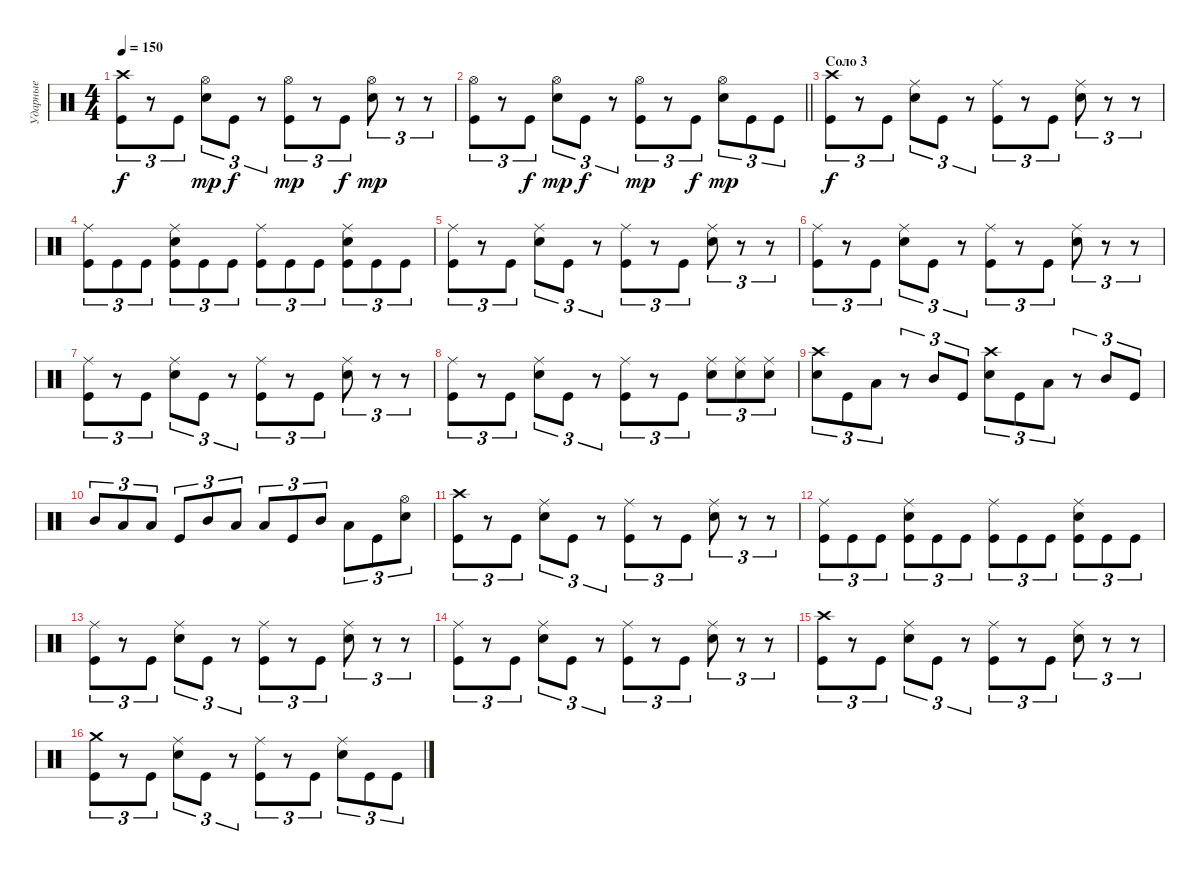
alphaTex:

\track ("Ударные" "Ударные") {instrument percussion}
\staff {score}
\articulation defaults
\ts (4 4)
\tempo 150
\clef neutral
\ks c
("Crash high (hit)" "Kick (hit)").8{tu (3 2) dy f} r.8{tu (3 2)} "Kick (hit)".8{tu (3 2)} ("Hi-Hat (open)" "Snare (hit) 2").8{tu (3 2) dy mp} "Kick (hit)".8{tu (3 2) dy f} r.8{tu (3 2)} ("Hi-Hat (open)" "Kick (hit)").8{tu (3 2) dy mp} r.8{tu (3 2)} "Kick (hit)".8{tu (3 2) dy f} ("Hi-Hat (open)" "Snare (hit) 2").8{tu (3 2) dy mp} r.8{tu (3 2)} r.8{tu (3 2)} |
\barLineRight lightlight
("Hi-Hat (open)" "Kick (hit)").8{tu (3 2)} r.8{tu (3 2)} "Kick (hit)".8{tu (3 2) dy f} ("Hi-Hat (open)" "Snare (hit) 2").8{tu (3 2) dy mp} "Kick (hit)".8{tu (3 2) dy f} r.8{tu (3 2)} ("Hi-Hat (open)" "Kick (hit)").8{tu (3 2) dy mp} r.8{tu (3 2)} "Kick (hit)".8{tu (3 2) dy f} ("Hi-Hat (open)" "Snare (hit) 2").8{tu (3 2) dy mp} "Kick (hit)".8{tu (3 2)} "Kick (hit)".8{tu (3 2)} |
\section ("" "Соло 3")
("Crash high (hit)" "Kick (hit)").8{tu (3 2) dy f} r.8{tu (3 2)} "Kick (hit)".8{tu (3 2)} ("Ride (middle)" "Snare (hit) 2").8{tu (3 2)} "Kick (hit)".8{tu (3 2)} r.8{tu (3 2)} ("Ride (middle)" "Kick (hit)").8{tu (3 2)} r.8{tu (3 2)} "Kick (hit)".8{tu (3 2)} ("Ride (middle)" "Snare (hit) 2").8{tu (3 2)} r.8{tu (3 2)} r.8{tu (3 2)} |
("Ride (middle)" "Kick (hit)").8{tu (3 2)} "Kick (hit)".8{tu (3 2)} "Kick (hit)".8{tu (3 2)} ("Ride (middle)" "Snare (hit) 2" "Kick (hit)").8{tu (3 2)} "Kick (hit)".8{tu (3 2)} "Kick (hit)".8{tu (3 2)} ("Ride (middle)" "Kick (hit)").8{tu (3 2)} "Kick (hit)".8{tu (3 2)} "Kick (hit)".8{tu (3 2)} ("Ride (middle)" "Snare (hit) 2" "Kick (hit)").8{tu (3 2)} "Kick (hit)".8{tu (3 2)} "Kick (hit)".8{tu (3 2)} |
("Ride (middle)" "Kick (hit)").8{tu (3 2)} r.8{tu (3 2)} "Kick (hit)".8{tu (3 2)} ("Ride (middle)" "Snare (hit) 2").8{tu (3 2)} "Kick (hit)".8{tu (3 2)} r.8{tu (3 2)} ("Ride (middle)" "Kick (hit)").8{tu (3 2)} r.8{tu (3 2)} "Kick (hit)".8{tu (3 2)} ("Ride (middle)" "Snare (hit) 2").8{tu (3 2)} r.8{tu (3 2)} r.8{tu (3 2)} |
("Ride (middle)" "Kick (hit)").8{tu (3 2)} r.8{tu (3 2)} "Kick (hit)".8{tu (3 2)} ("Ride (middle)" "Snare (hit) 2").8{tu (3 2)} "Kick (hit)".8{tu (3 2)} r.8{tu (3 2)} ("Ride (middle)" "Kick (hit)").8{tu (3 2)} r.8{tu (3 2)} "Kick (hit)".8{tu (3 2)} ("Ride (middle)" "Snare (hit) 2").8{tu (3 2)} r.8{tu (3 2)} r.8{tu (3 2)} |
("Ride (middle)" "Kick (hit)").8{tu (3 2)} r.8{tu (3 2)} "Kick (hit)".8{tu (3 2)} ("Ride (middle)" "Snare (hit) 2").8{tu (3 2)} "Kick (hit)".8{tu (3 2)} r.8{tu (3 2)} ("Ride (middle)" "Kick (hit)").8{tu (3 2)} r.8{tu (3 2)} "Kick (hit)".8{tu (3 2)} ("Ride (middle)" "Snare (hit) 2").8{tu (3 2)} r.8{tu (3 2)} r.8{tu (3 2)} |
("Ride (middle)" "Kick (hit)").8{tu (3 2)} r.8{tu (3 2)} "Kick (hit)".8{tu (3 2)} ("Ride (middle)" "Snare (hit) 2").8{tu (3 2)} "Kick (hit)".8{tu (3 2)} r.8{tu (3 2)} ("Ride (middle)" "Kick (hit)").8{tu (3 2)} r.8{tu (3 2)} "Kick (hit)".8{tu (3 2)} ("Ride (middle)" "Snare (hit) 2").8{tu (3 2)} ("Ride (middle)" "Snare (hit) 2").8{tu (3 2)} ("Ride (middle)" "Snare (hit) 2").8{tu (3 2)} |
("Crash high (hit)" "Snare (hit) 2").8{tu (3 2)} "Kick (hit)".8{tu (3 2)} "Low Tom (hit)".8{tu (3 2)} r.8{tu (3 2)} "Mid Tom (hit)".8{tu (3 2)} "Kick (hit)".8{tu (3 2)} ("Crash high (hit)" "Snare (hit) 2").8{tu (3 2)} "Kick (hit)".8{tu (3 2)} "Low Tom (hit)".8{tu (3 2)} r.8{tu (3 2)} "Mid Tom (hit)".8{tu (3 2)} "Kick (hit)".8{tu (3 2)} |
"Mid Tom (hit)".8{tu (3 2)} "Low Tom (hit)".8{tu (3 2)} "Low Tom (hit)".8{tu (3 2)} "Kick (hit)".8{tu (3 2)} "Mid Tom (hit)".8{tu (3 2)} "Low Tom (hit)".8{tu (3 2)} "Low Tom (hit)".8{tu (3 2)} "Kick (hit)".8{tu (3 2)} "Mid Tom (hit)".8{tu (3 2)} "Low Tom (hit)".8{tu (3 2)} "Kick (hit)".8{tu (3 2)} ("Hi-Hat (open)" "Snare (hit) 2").8{tu (3 2)} |
("Crash high (hit)" "Kick (hit)").8{tu (3 2)} r.8{tu (3 2)} "Kick (hit)".8{tu (3 2)} ("Ride (middle)" "Snare (hit) 2").8{tu (3 2)} "Kick (hit)".8{tu (3 2)} r.8{tu (3 2)} ("Ride (middle)" "Kick (hit)").8{tu (3 2)} r.8{tu (3 2)} "Kick (hit)".8{tu (3 2)} ("Ride (middle)" "Snare (hit) 2").8{tu (3 2)} r.8{tu (3 2)} r.8{tu (3 2)} |
("Ride (middle)" "Kick (hit)").8{tu (3 2)} "Kick (hit)".8{tu (3 2)} "Kick (hit)".8{tu (3 2)} ("Ride (middle)" "Snare (hit) 2" "Kick (hit)").8{tu (3 2)} "Kick (hit)".8{tu (3 2)} "Kick (hit)".8{tu (3 2)} ("Ride (middle)" "Kick (hit)").8{tu (3 2)} "Kick (hit)".8{tu (3 2)} "Kick (hit)".8{tu (3 2)} ("Ride (middle)" "Snare (hit) 2" "Kick (hit)").8{tu (3 2)} "Kick (hit)".8{tu (3 2)} "Kick (hit)".8{tu (3 2)} |
("Ride (middle)" "Kick (hit)").8{tu (3 2)} r.8{tu (3 2)} "Kick (hit)".8{tu (3 2)} ("Ride (middle)" "Snare (hit) 2").8{tu (3 2)} "Kick (hit)".8{tu (3 2)} r.8{tu (3 2)} ("Ride (middle)" "Kick (hit)").8{tu (3 2)} r.8{tu (3 2)} "Kick (hit)".8{tu (3 2)} ("Ride (middle)" "Snare (hit) 2").8{tu (3 2)} r.8{tu (3 2)} r.8{tu (3 2)} |
("Ride (middle)" "Kick (hit)").8{tu (3 2)} r.8{tu (3 2)} "Kick (hit)".8{tu (3 2)} ("Ride (middle)" "Snare (hit) 2").8{tu (3 2)} "Kick (hit)".8{tu (3 2)} r.8{tu (3 2)} ("Ride (middle)" "Kick (hit)").8{tu (3 2)} r.8{tu (3 2)} "Kick (hit)".8{tu (3 2)} ("Ride (middle)" "Snare (hit) 2").8{tu (3 2)} r.8{tu (3 2)} r.8{tu (3 2)} |
("Crash high (hit)" "Kick (hit)").8{tu (3 2)} r.8{tu (3 2)} "Kick (hit)".8{tu (3 2)} ("Ride (middle)" "Snare (hit) 2").8{tu (3 2)} "Kick (hit)".8{tu (3 2)} r.8{tu (3 2)} ("Ride (middle)" "Kick (hit)").8{tu (3 2)} r.8{tu (3 2)} "Kick (hit)".8{tu (3 2)} ("Ride (middle)" "Snare (hit) 2").8{tu (3 2)} r.8{tu (3 2)} r.8{tu (3 2)} |
("Crash medium (hit)" "Kick (hit)").8{tu (3 2)} r.8{tu (3 2)} "Kick (hit)".8{tu (3 2)} ("Ride (middle)" "Snare (hit) 2").8{tu (3 2)} "Kick (hit)".8{tu (3 2)} r.8{tu (3 2)} ("Ride (middle)" "Kick (hit)").8{tu (3 2)} r.8{tu (3 2)} "Kick (hit)".8{tu (3 2)} ("Ride (middle)" "Snare (hit) 2").8{tu (3 2)} "Kick (hit)".8{tu (3 2)} "Kick (hit)".8{tu (3 2)}
